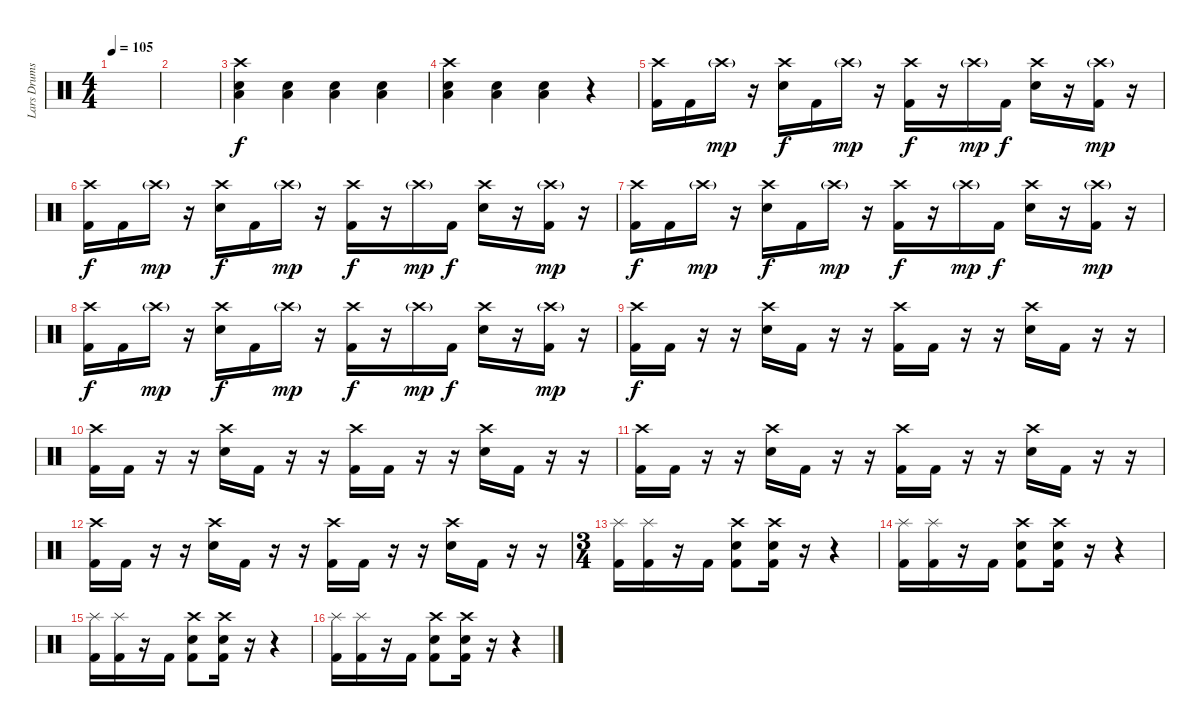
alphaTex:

\track ("Lars Drums" "Lars Drums") {instrument percussion}
\staff {score}
\articulation defaults
\ts (4 4)
\tempo 105
\clef neutral
\ks c
|
|
("Crash high (hit)" "Low Floor Tom (hit)" "Snare (hit) 2").4 ("Low Floor Tom (hit)" "Snare (hit) 2").4 ("Low Floor Tom (hit)" "Snare (hit) 2").4 ("Low Floor Tom (hit)" "Snare (hit) 2").4 |
("Crash high (hit)" "Low Floor Tom (hit)" "Snare (hit) 2").4 ("Low Floor Tom (hit)" "Snare (hit) 2").4 ("Low Floor Tom (hit)" "Snare (hit) 2").4 r.4 |
("Crash high (hit)" "Kick (hit) 2").16 "Kick (hit) 2".16 "Crash high (hit)"{g}.16{dy mp} r.16 ("Crash high (hit)" "Snare (hit) 2").16{dy f} "Kick (hit) 2".16 "Crash high (hit)"{g}.16{dy mp} r.16 ("Crash high (hit)" "Kick (hit) 2").16{dy f} r.16 "Crash high (hit)"{g}.16{dy mp} "Kick (hit) 2".16{dy f} ("Crash high (hit)" "Snare (hit) 2").16 r.16 ("Crash high (hit)"{g} "Kick (hit) 2").16{dy mp} r.16 |
("Crash high (hit)" "Kick (hit) 2").16{dy f} "Kick (hit) 2".16 "Crash high (hit)"{g}.16{dy mp} r.16 ("Crash high (hit)" "Snare (hit) 2").16{dy f} "Kick (hit) 2".16 "Crash high (hit)"{g}.16{dy mp} r.16 ("Crash high (hit)" "Kick (hit) 2").16{dy f} r.16 "Crash high (hit)"{g}.16{dy mp} "Kick (hit) 2".16{dy f} ("Crash high (hit)" "Snare (hit) 2").16 r.16 ("Crash high (hit)"{g} "Kick (hit) 2").16{dy mp} r.16 |
("Crash high (hit)" "Kick (hit) 2").16{dy f} "Kick (hit) 2".16 "Crash high (hit)"{g}.16{dy mp} r.16 ("Crash high (hit)" "Snare (hit) 2").16{dy f} "Kick (hit) 2".16 "Crash high (hit)"{g}.16{dy mp} r.16 ("Crash high (hit)" "Kick (hit) 2").16{dy f} r.16 "Crash high (hit)"{g}.16{dy mp} "Kick (hit) 2".16{dy f} ("Crash high (hit)" "Snare (hit) 2").16 r.16 ("Crash high (hit)"{g} "Kick (hit) 2").16{dy mp} r.16 |
("Crash high (hit)" "Kick (hit) 2").16{dy f} "Kick (hit) 2".16 "Crash high (hit)"{g}.16{dy mp} r.16 ("Crash high (hit)" "Snare (hit) 2").16{dy f} "Kick (hit) 2".16 "Crash high (hit)"{g}.16{dy mp} r.16 ("Crash high (hit)" "Kick (hit) 2").16{dy f} r.16 "Crash high (hit)"{g}.16{dy mp} "Kick (hit) 2".16{dy f} ("Crash high (hit)" "Snare (hit) 2").16 r.16 ("Crash high (hit)"{g} "Kick (hit) 2").16{dy mp} r.16 |
("Crash high (hit)" "Kick (hit) 2").16{dy f} "Kick (hit) 2".16 r.16 r.16 ("Crash high (hit)" "Snare (hit) 2").16 "Kick (hit) 2".16 r.16 r.16 ("Crash high (hit)" "Kick (hit) 2").16 "Kick (hit) 2".16 r.16 r.16 ("Crash high (hit)" "Snare (hit) 2").16 "Kick (hit) 2".16 r.16 r.16 |
("Crash high (hit)" "Kick (hit) 2").16 "Kick (hit) 2".16 r.16 r.16 ("Crash high (hit)" "Snare (hit) 2").16 "Kick (hit) 2".16 r.16 r.16 ("Crash high (hit)" "Kick (hit) 2").16 "Kick (hit) 2".16 r.16 r.16 ("Crash high (hit)" "Snare (hit) 2").16 "Kick (hit) 2".16 r.16 r.16 |
("Crash high (hit)" "Kick (hit) 2").16 "Kick (hit) 2".16 r.16 r.16 ("Crash high (hit)" "Snare (hit) 2").16 "Kick (hit) 2".16 r.16 r.16 ("Crash high (hit)" "Kick (hit) 2").16 "Kick (hit) 2".16 r.16 r.16 ("Crash high (hit)" "Snare (hit) 2").16 "Kick (hit) 2".16 r.16 r.16 |
("Crash high (hit)" "Kick (hit) 2").16 "Kick (hit) 2".16 r.16 r.16 ("Crash high (hit)" "Snare (hit) 2").16 "Kick (hit) 2".16 r.16 r.16 ("Crash high (hit)" "Kick (hit) 2").16 "Kick (hit) 2".16 r.16 r.16 ("Crash high (hit)" "Snare (hit) 2").16 "Kick (hit) 2".16 r.16 r.16 |
\ts (3 4)
("Splash (hit)" "Kick (hit) 2").16 ("Splash (hit)" "Kick (hit) 2").16 r.16 "Kick (hit) 2".16 ("Crash high (hit)" "Snare (hit) 2" "Kick (hit) 2").8 ("Crash high (hit)" "Snare (hit) 2" "Kick (hit) 2").16 r.16 r.4 |
("Splash (hit)" "Kick (hit) 2").16 ("Splash (hit)" "Kick (hit) 2").16 r.16 "Kick (hit) 2".16 ("Crash high (hit)" "Snare (hit) 2" "Kick (hit) 2").8 ("Crash high (hit)" "Snare (hit) 2" "Kick (hit) 2").16 r.16 r.4 |
("Splash (hit)" "Kick (hit) 2").16 ("Splash (hit)" "Kick (hit) 2").16 r.16 "Kick (hit) 2".16 ("Crash high (hit)" "Snare (hit) 2" "Kick (hit) 2").8 ("Crash high (hit)" "Snare (hit) 2" "Kick (hit) 2").16 r.16 r.4 |
("Splash (hit)" "Kick (hit) 2").16 ("Splash (hit)" "Kick (hit) 2").16 r.16 "Kick (hit) 2".16 ("Crash high (hit)" "Snare (hit) 2" "Kick (hit) 2").8 ("Crash high (hit)" "Snare (hit) 2" "Kick (hit) 2").16 r.16 r.4
